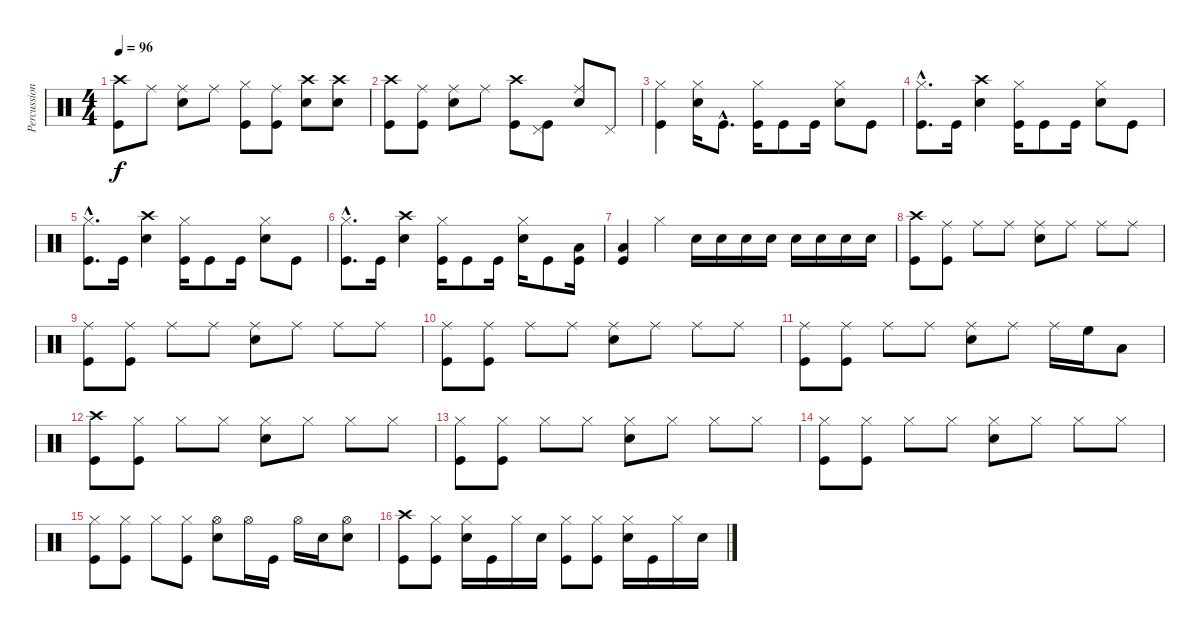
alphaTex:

\track ("Percussions" "Percussion") {instrument percussion}
\staff {score}
\articulation defaults
\ts (4 4)
\tempo 96
\clef neutral
\ks c
("Crash high (hit)" "Kick (hit)").8{dy f} "Ride (middle)".8 ("Ride (middle)" "Snare (hit) 2").8 "Ride (middle)".8 ("Hi-Hat (closed)" "Kick (hit)").8 ("Ride (middle)" "Kick (hit)").8 ("Crash high (hit)" "Snare (hit) 2").8 ("Crash high (hit)" "Snare (hit) 2").8 |
("Crash high (hit)" "Kick (hit)").8 ("Ride (middle)" "Kick (hit)").8 ("Ride (middle)" "Snare (hit) 2").8 "Ride (middle)".8 ("Crash high (hit)" "Kick (hit)").8 ("Pedal Hi-Hat (hit)" "Kick (hit)").8 ("Ride (middle)" "Snare (hit) 2").8 "Pedal Hi-Hat (hit)".8 |
("Hi-Hat (closed)" "Kick (hit)").4 ("Hi-Hat (closed)" "Snare (hit) 2").16 "Kick (hit)"{hac}.8{d} ("Hi-Hat (closed)" "Kick (hit)").16 "Kick (hit)".8 "Kick (hit)".16 ("Hi-Hat (closed)" "Snare (hit) 2").8 "Kick (hit)".8 |
("Hi-Hat (closed)"{hac} "Kick (hit)"{hac}).8{d} "Kick (hit)".16 ("Crash high (hit)" "Snare (hit) 2").4 ("Hi-Hat (closed)" "Kick (hit)").16 "Kick (hit)".8 "Kick (hit)".16 ("Hi-Hat (closed)" "Snare (hit) 2").8 "Kick (hit)".8 |
("Hi-Hat (closed)"{hac} "Kick (hit)"{hac}).8{d} "Kick (hit)".16 ("Crash high (hit)" "Snare (hit) 2").4 ("Hi-Hat (closed)" "Kick (hit)").16 "Kick (hit)".8 "Kick (hit)".16 ("Hi-Hat (closed)" "Snare (hit) 2").8 "Kick (hit)".8 |
("Hi-Hat (closed)"{hac} "Kick (hit)"{hac}).8{d} "Kick (hit)".16 ("Crash high (hit)" "Snare (hit) 2").4 ("Hi-Hat (closed)" "Kick (hit)").16 "Kick (hit)".8 "Kick (hit)".16 ("Hi-Hat (closed)" "Snare (hit) 2").16 "Kick (hit)".8 ("Low Floor Tom (hit)" "Kick (hit)").16 |
("Low Floor Tom (hit)" "Kick (hit)").4 "Hi-Hat (closed)".4 "Snare (hit) 2".16{volume 8} "Snare (hit) 2".16 "Snare (hit) 2".16 "Snare (hit) 2".16 "Snare (hit) 2".16 "Snare (hit) 2".16 "Snare (hit) 2".16 "Snare (hit) 2".16 |
("Crash high (hit)" "Kick (hit)").8{volume 13} ("Ride (middle)" "Kick (hit)").8 "Ride (middle)".8 "Ride (middle)".8 ("Ride (middle)" "Snare (hit) 2").8 "Ride (middle)".8 "Ride (middle)".8 "Ride (middle)".8 |
("Ride (middle)" "Kick (hit)").8 ("Ride (middle)" "Kick (hit)").8 "Ride (middle)".8 "Ride (middle)".8 ("Ride (middle)" "Snare (hit) 2").8 "Ride (middle)".8 "Ride (middle)".8 "Ride (middle)".8 |
("Ride (middle)" "Kick (hit)").8 ("Ride (middle)" "Kick (hit)").8 "Ride (middle)".8 "Ride (middle)".8 ("Ride (middle)" "Snare (hit) 2").8 "Ride (middle)".8 "Ride (middle)".8 "Ride (middle)".8 |
("Ride (middle)" "Kick (hit)").8 ("Ride (middle)" "Kick (hit)").8 "Ride (middle)".8 "Ride (middle)".8 ("Ride (middle)" "Snare (hit) 2").8 "Ride (middle)".8 "Ride (middle)".16 "High Floor Tom (hit)".16 "Low Tom (hit)".8 |
("Crash high (hit)" "Kick (hit)").8 ("Hi-Hat (closed)" "Kick (hit)").8 "Hi-Hat (closed)".8 "Hi-Hat (closed)".8 ("Hi-Hat (closed)" "Snare (hit) 2").8 "Hi-Hat (closed)".8 "Hi-Hat (closed)".8 "Hi-Hat (closed)".8 |
("Hi-Hat (closed)" "Kick (hit)").8 ("Hi-Hat (closed)" "Kick (hit)").8 "Hi-Hat (closed)".8 "Hi-Hat (closed)".8 ("Hi-Hat (closed)" "Snare (hit) 2").8 "Hi-Hat (closed)".8 "Hi-Hat (closed)".8 "Hi-Hat (closed)".8 |
("Hi-Hat (closed)" "Kick (hit)").8 ("Hi-Hat (closed)" "Kick (hit)").8 "Hi-Hat (closed)".8 "Hi-Hat (closed)".8 ("Hi-Hat (closed)" "Snare (hit) 2").8 "Hi-Hat (closed)".8 "Hi-Hat (closed)".8 "Hi-Hat (closed)".8 |
("Hi-Hat (closed)" "Kick (hit)").8 ("Hi-Hat (closed)" "Kick (hit)").8 "Hi-Hat (closed)".8 ("Hi-Hat (closed)" "Kick (hit)").8 ("Hi-Hat (open)" "Snare (hit) 2").8 "Hi-Hat (open)".16 "Kick (hit)".16 "Hi-Hat (open)".16 "Snare (hit) 2".16 ("Hi-Hat (open)" "Snare (hit) 2").8 |
("Crash high (hit)" "Kick (hit)").8 ("Hi-Hat (closed)" "Kick (hit)").8 ("Hi-Hat (closed)" "Snare (hit) 2").16 "Kick (hit)".16 "Hi-Hat (closed)".16 "Snare (hit) 2".16 ("Hi-Hat (closed)" "Kick (hit)").8 ("Hi-Hat (closed)" "Kick (hit)").8 ("Hi-Hat (closed)" "Snare (hit) 2").16 "Kick (hit)".16 "Hi-Hat (closed)".16 "Snare (hit) 2".16
